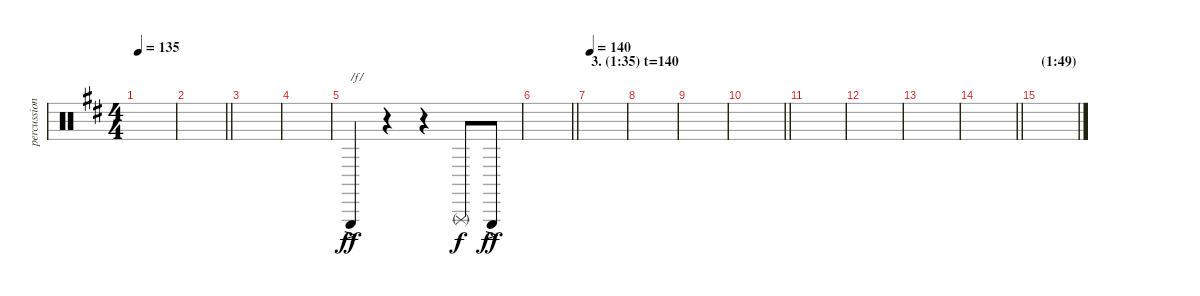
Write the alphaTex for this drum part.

\track ("percussion" "percussion") {instrument percussion}
\staff {score}
\articulation defaults
\ts (4 4)
\tempo 135
\clef neutral
\ks d
|
\barLineRight lightlight
|
|
|
"Triangle (hit)"{ac}.4{txt "/f/" dy ff} r.4 r.4 "Triangle (rnute)".8{dy f} "Triangle (hit)"{ac}.8{dy ff} |
\barLineRight lightlight
|
\section ("" "3. (1:35) t=140")
\tempo 140
|
|
|
\barLineRight lightlight
|
|
|
|
\barLineRight lightlight
|
\section ("" "(1:49)")
